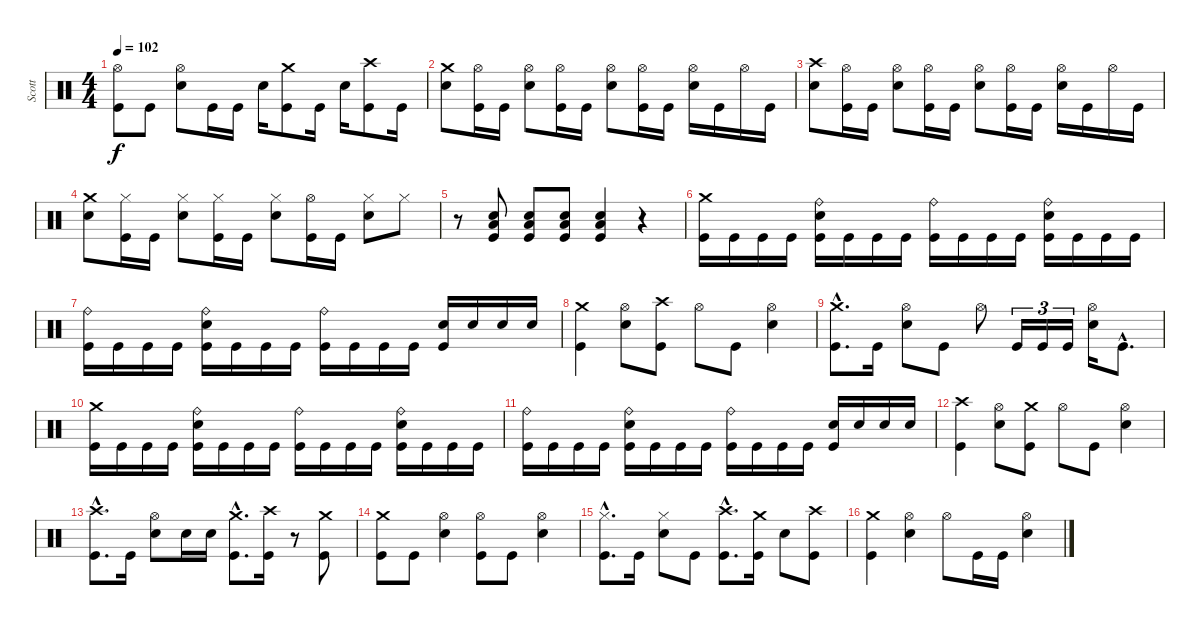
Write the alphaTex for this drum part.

\track ("Scott" "Scott") {instrument percussion}
\staff {score}
\articulation defaults
\ts (4 4)
\tempo 102
\clef neutral
\ks c
("Kick (hit)" "Hi-Hat (open)").8{dy f} "Kick (hit)".8 ("Snare (hit) 2" "Hi-Hat (open)").8 "Kick (hit)".16 "Kick (hit)".16 "Snare (hit) 2".16 ("Kick (hit)" "Crash medium (hit)").8 "Kick (hit)".16 "Snare (hit) 2".16 ("Kick (hit)" "Crash high (hit)").8 "Kick (hit)".16 |
("Snare (hit) 2" "Crash medium (hit)").8 ("Kick (hit)" "Hi-Hat (open)").16 "Kick (hit)".16 ("Snare (hit) 2" "Hi-Hat (open)").8 ("Kick (hit)" "Hi-Hat (open)").16 "Kick (hit)".16 ("Snare (hit) 2" "Hi-Hat (open)").8 ("Kick (hit)" "Hi-Hat (open)").16 "Kick (hit)".16 ("Snare (hit) 2" "Hi-Hat (open)").16 "Kick (hit)".16 "Hi-Hat (open)".16 "Kick (hit)".16 |
("Snare (hit) 2" "Crash high (hit)").8 ("Kick (hit)" "Hi-Hat (open)").16 "Kick (hit)".16 ("Snare (hit) 2" "Hi-Hat (open)").8 ("Kick (hit)" "Hi-Hat (open)").16 "Kick (hit)".16 ("Snare (hit) 2" "Hi-Hat (open)").8 ("Kick (hit)" "Hi-Hat (open)").16 "Kick (hit)".16 ("Snare (hit) 2" "Hi-Hat (open)").16 "Kick (hit)".16 "Hi-Hat (open)".16 "Kick (hit)".16 |
("Snare (hit) 2" "Crash medium (hit)").8 ("Kick (hit)" "Hi-Hat (closed)").16 "Kick (hit)".16 ("Snare (hit) 2" "Hi-Hat (closed)").8 ("Kick (hit)" "Hi-Hat (closed)").16 "Kick (hit)".16 ("Snare (hit) 2" "Hi-Hat (closed)").8 ("Kick (hit)" "Hi-Hat (open)").16 "Kick (hit)".16 ("Snare (hit) 2" "Hi-Hat (closed)").8 "Hi-Hat (closed)".8 |
r.8 ("Kick (hit)" "Snare (hit) 2" "Low Floor Tom (hit)").8 ("Kick (hit)" "Snare (hit) 2" "Low Floor Tom (hit)").8 ("Kick (hit)" "Snare (hit) 2" "Low Floor Tom (hit)").8 ("Kick (hit)" "Snare (hit) 2" "Low Floor Tom (hit)").4 r.4 |
("Kick (hit)" "Crash medium (hit)").16 "Kick (hit)".16 "Kick (hit)".16 "Kick (hit)".16 ("Kick (hit)" "Snare (hit) 2" "Ride (bell)").16 "Kick (hit)".16 "Kick (hit)".16 "Kick (hit)".16 ("Kick (hit)" "Ride (bell)").16 "Kick (hit)".16 "Kick (hit)".16 "Kick (hit)".16 ("Kick (hit)" "Snare (hit) 2" "Ride (bell)").16 "Kick (hit)".16 "Kick (hit)".16 "Kick (hit)".16 |
("Kick (hit)" "Ride (bell)").16 "Kick (hit)".16 "Kick (hit)".16 "Kick (hit)".16 ("Kick (hit)" "Snare (hit) 2" "Ride (bell)").16 "Kick (hit)".16 "Kick (hit)".16 "Kick (hit)".16 ("Kick (hit)" "Ride (bell)").16 "Kick (hit)".16 "Kick (hit)".16 "Kick (hit)".16 ("Kick (hit)" "Snare (hit) 2").16 "Snare (hit) 2".16 "Snare (hit) 2".16 "Snare (hit) 2".16 |
("Kick (hit)" "Crash medium (hit)").4 ("Snare (hit) 2" "Hi-Hat (open)").8 ("Kick (hit)" "Crash high (hit)").8 "Hi-Hat (open)".8 "Kick (hit)".8 ("Snare (hit) 2" "Hi-Hat (open)").4 |
("Kick (hit)"{hac} "Crash medium (hit)"{hac}).8{d} "Kick (hit)".16 ("Snare (hit) 2" "Hi-Hat (open)").8 "Kick (hit)".8 "Hi-Hat (open)".8 "Kick (hit)".16{tu (3 2)} "Kick (hit)".16{tu (3 2)} "Kick (hit)".16{tu (3 2)} ("Snare (hit) 2" "Hi-Hat (open)").16 "Kick (hit)"{hac}.8{d} |
("Kick (hit)" "Crash medium (hit)").16 "Kick (hit)".16 "Kick (hit)".16 "Kick (hit)".16 ("Kick (hit)" "Snare (hit) 2" "Ride (bell)").16 "Kick (hit)".16 "Kick (hit)".16 "Kick (hit)".16 ("Kick (hit)" "Ride (bell)").16 "Kick (hit)".16 "Kick (hit)".16 "Kick (hit)".16 ("Kick (hit)" "Snare (hit) 2" "Ride (bell)").16 "Kick (hit)".16 "Kick (hit)".16 "Kick (hit)".16 |
("Kick (hit)" "Ride (bell)").16 "Kick (hit)".16 "Kick (hit)".16 "Kick (hit)".16 ("Kick (hit)" "Snare (hit) 2" "Ride (bell)").16 "Kick (hit)".16 "Kick (hit)".16 "Kick (hit)".16 ("Kick (hit)" "Ride (bell)").16 "Kick (hit)".16 "Kick (hit)".16 "Kick (hit)".16 ("Kick (hit)" "Snare (hit) 2").16 "Snare (hit) 2".16 "Snare (hit) 2".16 "Snare (hit) 2".16 |
("Kick (hit)" "Crash high (hit)").4 ("Snare (hit) 2" "Hi-Hat (open)").8 ("Kick (hit)" "Crash medium (hit)").8 "Hi-Hat (open)".8 "Kick (hit)".8 ("Snare (hit) 2" "Hi-Hat (open)").4 |
("Kick (hit)"{hac} "Crash high (hit)"{hac}).8{d} "Kick (hit)".16 ("Snare (hit) 2" "Hi-Hat (open)").8 "Snare (hit) 2".16 "Snare (hit) 2".16 ("Kick (hit)"{hac} "Crash medium (hit)"{hac}).8{d} ("Kick (hit)" "Crash high (hit)").16 r.8 ("Kick (hit)" "Crash medium (hit)").8 |
("Kick (hit)" "Crash medium (hit)").8 "Kick (hit)".8 ("Snare (hit) 2" "Hi-Hat (open)").4 ("Kick (hit)" "Hi-Hat (open)").8 "Kick (hit)".8 ("Snare (hit) 2" "Hi-Hat (open)").4 |
("Kick (hit)"{hac} "Hi-Hat (closed)"{hac}).8{d} "Kick (hit)".16 ("Snare (hit) 2" "Hi-Hat (closed)").8 "Kick (hit)".8 ("Kick (hit)"{hac} "Crash high (hit)"{hac}).8{d} ("Kick (hit)" "Crash medium (hit)").16 "Snare (hit) 2".8 ("Kick (hit)" "Crash high (hit)").8 |
("Kick (hit)" "Crash medium (hit)").4 ("Snare (hit) 2" "Hi-Hat (open)").4 "Hi-Hat (open)".8 "Kick (hit)".16 "Kick (hit)".16 ("Snare (hit) 2" "Hi-Hat (open)").4
